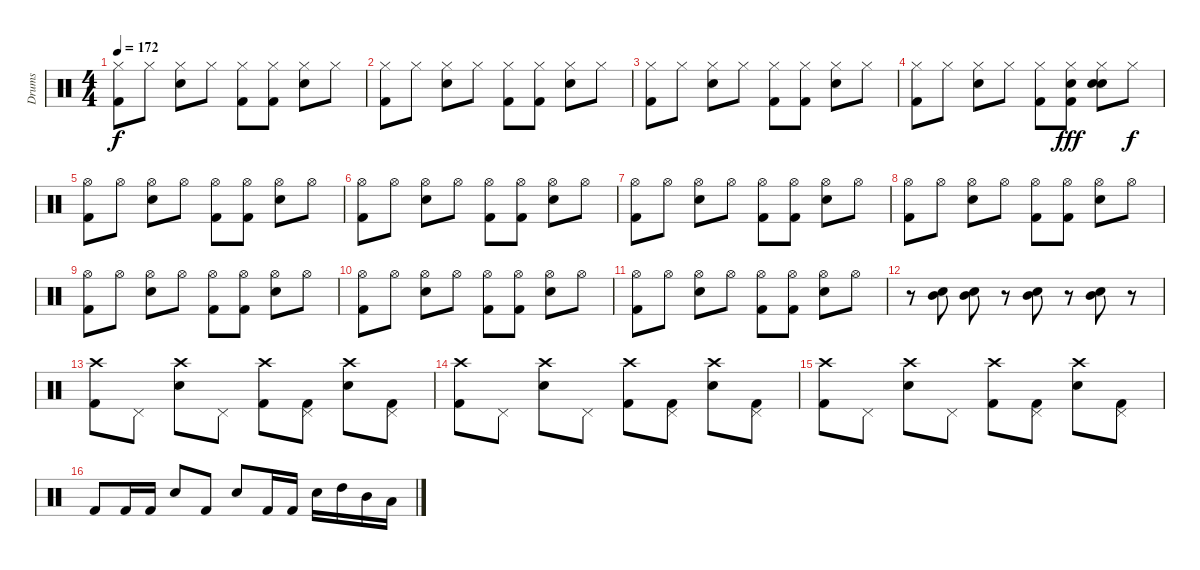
\track ("Drums" "Drums") {instrument percussion}
\staff {score}
\articulation defaults
\ts (4 4)
\tempo 172
\clef neutral
\ks c
("Hi-Hat (closed)" "Kick (hit) 2").8{dy f} "Hi-Hat (closed)".8 ("Hi-Hat (closed)" "Snare (hit) 2").8 "Hi-Hat (closed)".8 ("Hi-Hat (closed)" "Kick (hit) 2").8 ("Hi-Hat (closed)" "Kick (hit) 2").8 ("Hi-Hat (closed)" "Snare (hit) 2").8 "Hi-Hat (closed)".8 |
("Hi-Hat (closed)" "Kick (hit) 2").8 "Hi-Hat (closed)".8 ("Hi-Hat (closed)" "Snare (hit) 2").8 "Hi-Hat (closed)".8 ("Hi-Hat (closed)" "Kick (hit) 2").8 ("Hi-Hat (closed)" "Kick (hit) 2").8 ("Hi-Hat (closed)" "Snare (hit) 2").8 "Hi-Hat (closed)".8 |
("Hi-Hat (closed)" "Kick (hit) 2").8 "Hi-Hat (closed)".8 ("Hi-Hat (closed)" "Snare (hit) 2").8 "Hi-Hat (closed)".8 ("Hi-Hat (closed)" "Kick (hit) 2").8 ("Hi-Hat (closed)" "Kick (hit) 2").8 ("Hi-Hat (closed)" "Snare (hit) 2").8 "Hi-Hat (closed)".8 |
("Hi-Hat (closed)" "Kick (hit) 2").8 "Hi-Hat (closed)".8 ("Hi-Hat (closed)" "Snare (hit) 2").8 "Hi-Hat (closed)".8 ("Hi-Hat (closed)" "Kick (hit) 2").8 ("Hi-Hat (closed)" "Hand Clap (hit)" "Kick (hit) 2").8{dy fff} ("Hi-Hat (closed)" "Snare (hit) 2" "Hand Clap (hit)").8 "Hi-Hat (closed)".8{dy f} |
("Hi-Hat (open)" "Kick (hit) 2").8 "Hi-Hat (open)".8 ("Hi-Hat (open)" "Snare (hit) 2").8 "Hi-Hat (open)".8 ("Hi-Hat (open)" "Kick (hit) 2").8 ("Hi-Hat (open)" "Kick (hit) 2").8 ("Hi-Hat (open)" "Snare (hit) 2").8 "Hi-Hat (open)".8 |
("Hi-Hat (open)" "Kick (hit) 2").8 "Hi-Hat (open)".8 ("Hi-Hat (open)" "Snare (hit) 2").8 "Hi-Hat (open)".8 ("Hi-Hat (open)" "Kick (hit) 2").8 ("Hi-Hat (open)" "Kick (hit) 2").8 ("Hi-Hat (open)" "Snare (hit) 2").8 "Hi-Hat (open)".8 |
("Hi-Hat (open)" "Kick (hit) 2").8 "Hi-Hat (open)".8 ("Hi-Hat (open)" "Snare (hit) 2").8 "Hi-Hat (open)".8 ("Hi-Hat (open)" "Kick (hit) 2").8 ("Hi-Hat (open)" "Kick (hit) 2").8 ("Hi-Hat (open)" "Snare (hit) 2").8 "Hi-Hat (open)".8 |
("Hi-Hat (open)" "Kick (hit) 2").8 "Hi-Hat (open)".8 ("Hi-Hat (open)" "Snare (hit) 2").8 "Hi-Hat (open)".8 ("Hi-Hat (open)" "Kick (hit) 2").8 ("Hi-Hat (open)" "Kick (hit) 2").8 ("Hi-Hat (open)" "Snare (hit) 2").8 "Hi-Hat (open)".8 |
("Hi-Hat (open)" "Kick (hit) 2").8 "Hi-Hat (open)".8 ("Hi-Hat (open)" "Snare (hit) 2").8 "Hi-Hat (open)".8 ("Hi-Hat (open)" "Kick (hit) 2").8 ("Hi-Hat (open)" "Kick (hit) 2").8 ("Hi-Hat (open)" "Snare (hit) 2").8 "Hi-Hat (open)".8 |
("Hi-Hat (open)" "Kick (hit) 2").8 "Hi-Hat (open)".8 ("Hi-Hat (open)" "Snare (hit) 2").8 "Hi-Hat (open)".8 ("Hi-Hat (open)" "Kick (hit) 2").8 ("Hi-Hat (open)" "Kick (hit) 2").8 ("Hi-Hat (open)" "Snare (hit) 2").8 "Hi-Hat (open)".8 |
("Hi-Hat (open)" "Kick (hit) 2").8 "Hi-Hat (open)".8 ("Hi-Hat (open)" "Snare (hit) 2").8 "Hi-Hat (open)".8 ("Hi-Hat (open)" "Kick (hit) 2").8 ("Hi-Hat (open)" "Kick (hit) 2").8 ("Hi-Hat (open)" "Snare (hit) 2").8 "Hi-Hat (open)".8 |
r.8 ("Mid Tom (hit)" "Snare (hit) 2").8 ("Mid Tom (hit)" "Snare (hit) 2").8 r.8 ("Mid Tom (hit)" "Snare (hit) 2").8 r.8 ("Mid Tom (hit)" "Snare (hit) 2").8 r.8 |
("Crash high (hit)" "Kick (hit) 2").8 "Pedal Hi-Hat (hit)".8 ("Crash high (hit)" "Snare (hit) 2").8 "Pedal Hi-Hat (hit)".8 ("Crash high (hit)" "Kick (hit) 2").8 ("Pedal Hi-Hat (hit)" "Kick (hit) 2").8 ("Crash high (hit)" "Snare (hit) 2").8 ("Pedal Hi-Hat (hit)" "Kick (hit) 2").8 |
("Crash high (hit)" "Kick (hit) 2").8 "Pedal Hi-Hat (hit)".8 ("Crash high (hit)" "Snare (hit) 2").8 "Pedal Hi-Hat (hit)".8 ("Crash high (hit)" "Kick (hit) 2").8 ("Pedal Hi-Hat (hit)" "Kick (hit) 2").8 ("Crash high (hit)" "Snare (hit) 2").8 ("Pedal Hi-Hat (hit)" "Kick (hit) 2").8 |
("Crash high (hit)" "Kick (hit) 2").8 "Pedal Hi-Hat (hit)".8 ("Crash high (hit)" "Snare (hit) 2").8 "Pedal Hi-Hat (hit)".8 ("Crash high (hit)" "Kick (hit) 2").8 ("Pedal Hi-Hat (hit)" "Kick (hit) 2").8 ("Crash high (hit)" "Snare (hit) 2").8 ("Pedal Hi-Hat (hit)" "Kick (hit) 2").8 |
"Kick (hit) 2".8 "Kick (hit) 2".16 "Kick (hit) 2".16 "Snare (hit) 2".8 "Kick (hit) 2".8 "Snare (hit) 2".8 "Kick (hit) 2".16 "Kick (hit) 2".16 "Snare (hit) 2".16 "High Tom (hit)".16 "Mid Tom (hit)".16 "Low Tom (hit)".16
